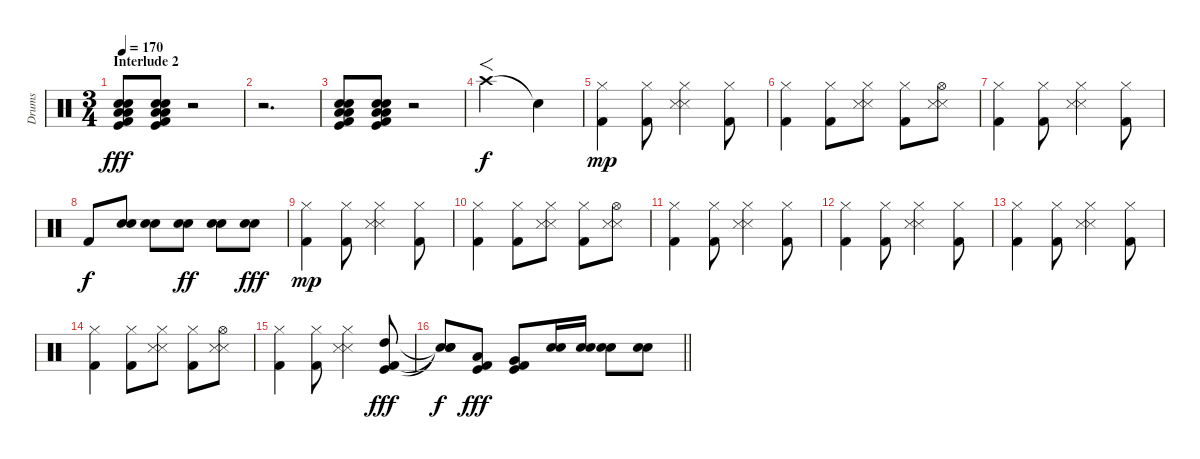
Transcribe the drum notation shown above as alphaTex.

\track ("Drums" "Drums") {instrument percussion}
\staff {score}
\articulation defaults
\ts (3 4)
\section ("" "Interlude 2")
\tempo 170
\clef neutral
\ks c
("Kick (hit)" "Low Floor Tom (hit)" "Low Floor Tom (hit)" "Electric Snare (hit)" "Electric Snare (hit)" "Kick (hit) 2").8{dy fff} ("Kick (hit)" "Low Floor Tom (hit)" "Low Floor Tom (hit)" "Electric Snare (hit)" "Electric Snare (hit)" "Kick (hit) 2").8 r.2 |
r.2{d} |
("Kick (hit)" "Low Floor Tom (hit)" "Low Floor Tom (hit)" "Electric Snare (hit)" "Electric Snare (hit)" "Kick (hit) 2").8 ("Kick (hit)" "Low Floor Tom (hit)" "Low Floor Tom (hit)" "Electric Snare (hit)" "Electric Snare (hit)" "Kick (hit) 2").8 r.2 |
"Crash high (hit)".2{f dy f} "Snare (hit)"{t}.4 |
("Hi-Hat (closed)" "Kick (hit) 2").4{dy mp} ("Hi-Hat (closed)" "Kick (hit) 2").8 ("Hi-Hat (closed)" "Snare (side stick) 3" "Snare (side stick) 3").4 ("Hi-Hat (closed)" "Kick (hit) 2").8 |
("Hi-Hat (closed)" "Kick (hit) 2").4 ("Hi-Hat (closed)" "Kick (hit) 2").8 ("Hi-Hat (closed)" "Snare (side stick) 3" "Snare (side stick) 3").8 ("Hi-Hat (closed)" "Kick (hit) 2").8 ("Hi-Hat (open)" "Snare (side stick) 3" "Snare (side stick) 3").8 |
("Hi-Hat (closed)" "Kick (hit) 2").4 ("Hi-Hat (closed)" "Kick (hit) 2").8 ("Hi-Hat (closed)" "Snare (side stick) 3" "Snare (side stick) 3").4 ("Hi-Hat (closed)" "Kick (hit) 2").8 |
"Kick (hit) 2".8{dy f} ("Electric Snare (hit)" "Electric Snare (hit)").8 ("Electric Snare (hit)" "Electric Snare (hit)").8 ("Electric Snare (hit)" "Electric Snare (hit)").8{dy ff} ("Electric Snare (hit)" "Electric Snare (hit)").8 ("Electric Snare (hit)" "Electric Snare (hit)").8{dy fff} |
("Hi-Hat (closed)" "Kick (hit) 2").4{dy mp} ("Hi-Hat (closed)" "Kick (hit) 2").8 ("Hi-Hat (closed)" "Snare (side stick) 3" "Snare (side stick) 3").4 ("Hi-Hat (closed)" "Kick (hit) 2").8 |
("Hi-Hat (closed)" "Kick (hit) 2").4 ("Hi-Hat (closed)" "Kick (hit) 2").8 ("Hi-Hat (closed)" "Snare (side stick) 3" "Snare (side stick) 3").8 ("Hi-Hat (closed)" "Kick (hit) 2").8 ("Hi-Hat (open)" "Snare (side stick) 3" "Snare (side stick) 3").8 |
("Hi-Hat (closed)" "Kick (hit) 2").4 ("Hi-Hat (closed)" "Kick (hit) 2").8 ("Hi-Hat (closed)" "Snare (side stick) 3" "Snare (side stick) 3").4 ("Hi-Hat (closed)" "Kick (hit) 2").8 |
("Hi-Hat (closed)" "Kick (hit) 2").4 ("Hi-Hat (closed)" "Kick (hit) 2").8 ("Hi-Hat (closed)" "Snare (side stick) 3" "Snare (side stick) 3").4 ("Hi-Hat (closed)" "Kick (hit) 2").8 |
("Hi-Hat (closed)" "Kick (hit) 2").4 ("Hi-Hat (closed)" "Kick (hit) 2").8 ("Hi-Hat (closed)" "Snare (side stick) 3" "Snare (side stick) 3").4 ("Hi-Hat (closed)" "Kick (hit) 2").8 |
("Hi-Hat (closed)" "Kick (hit) 2").4 ("Hi-Hat (closed)" "Kick (hit) 2").8 ("Hi-Hat (closed)" "Snare (side stick) 3" "Snare (side stick) 3").8 ("Hi-Hat (closed)" "Kick (hit) 2").8 ("Hi-Hat (open)" "Snare (side stick) 3" "Snare (side stick) 3").8 |
("Hi-Hat (closed)" "Kick (hit) 2").4 ("Hi-Hat (closed)" "Kick (hit) 2").8 ("Hi-Hat (closed)" "Snare (side stick) 3" "Snare (side stick) 3").4 ("High Tom (hit)" "Kick (hit)" "Kick (hit) 2").8{dy fff} |
\barLineRight lightlight
("Snare (hit)"{t} "Snare (hit)"{t} "Snare (hit)"{t}).8{dy f} ("Low Tom (hit)" "Kick (hit)" "Kick (hit) 2").8{dy fff} ("Very Low Tom (hit)" "Kick (hit)" "Kick (hit) 2").8 ("Electric Snare (hit)" "Electric Snare (hit)").16 ("Electric Snare (hit)" "Electric Snare (hit)").16 ("Electric Snare (hit)" "Electric Snare (hit)").8 ("Electric Snare (hit)" "Electric Snare (hit)").8
